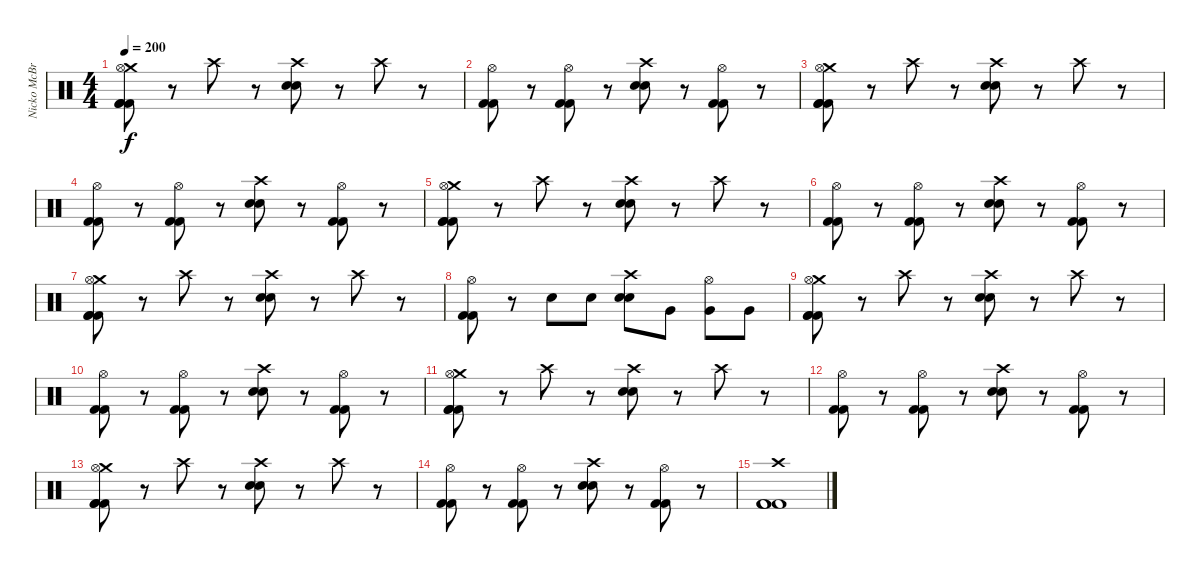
\track ("Nicko McBrain" "Nicko McBr") {instrument percussion}
\staff {score}
\articulation defaults
\ts (4 4)
\tempo 200
\clef neutral
\ks c
("Crash medium (hit)" "Hi-Hat (open)" "Kick (hit) 2" "Kick (hit) 2" "Kick (hit) 2").8{dy f} r.8 "Crash high (hit)".8 r.8 ("Crash high (hit)" "Snare (hit) 2" "Snare (hit) 2").8 r.8 "Crash high (hit)".8 r.8 |
("Hi-Hat (open)" "Kick (hit) 2" "Kick (hit) 2").8 r.8 ("Hi-Hat (open)" "Kick (hit) 2" "Kick (hit) 2").8 r.8 ("Crash high (hit)" "Snare (hit) 2" "Snare (hit) 2").8 r.8 ("Hi-Hat (open)" "Kick (hit) 2" "Kick (hit) 2").8 r.8 |
("Crash medium (hit)" "Hi-Hat (open)" "Kick (hit) 2" "Kick (hit) 2" "Kick (hit) 2").8 r.8 "Crash high (hit)".8 r.8 ("Crash high (hit)" "Snare (hit) 2" "Snare (hit) 2").8 r.8 "Crash high (hit)".8 r.8 |
("Hi-Hat (open)" "Kick (hit) 2" "Kick (hit) 2").8 r.8 ("Hi-Hat (open)" "Kick (hit) 2" "Kick (hit) 2").8 r.8 ("Crash high (hit)" "Snare (hit) 2" "Snare (hit) 2").8 r.8 ("Hi-Hat (open)" "Kick (hit) 2" "Kick (hit) 2").8 r.8 |
("Crash medium (hit)" "Hi-Hat (open)" "Kick (hit) 2" "Kick (hit) 2" "Kick (hit) 2").8 r.8 "Crash high (hit)".8 r.8 ("Crash high (hit)" "Snare (hit) 2" "Snare (hit) 2").8 r.8 "Crash high (hit)".8 r.8 |
("Hi-Hat (open)" "Kick (hit) 2" "Kick (hit) 2").8 r.8 ("Hi-Hat (open)" "Kick (hit) 2" "Kick (hit) 2").8 r.8 ("Crash high (hit)" "Snare (hit) 2" "Snare (hit) 2").8 r.8 ("Hi-Hat (open)" "Kick (hit) 2" "Kick (hit) 2").8 r.8 |
("Crash medium (hit)" "Hi-Hat (open)" "Kick (hit) 2" "Kick (hit) 2" "Kick (hit) 2").8 r.8 "Crash high (hit)".8 r.8 ("Crash high (hit)" "Snare (hit) 2" "Snare (hit) 2").8 r.8 "Crash high (hit)".8 r.8 |
("Hi-Hat (open)" "Kick (hit) 2" "Kick (hit) 2").8 r.8 "Snare (hit) 2".8 "Snare (hit) 2".8 ("Crash high (hit)" "Snare (hit) 2" "Snare (hit) 2").8 "Very Low Tom (hit)".8 ("Hi-Hat (open)" "Very Low Tom (hit)").8 "Very Low Tom (hit)".8 |
("Crash medium (hit)" "Hi-Hat (open)" "Kick (hit) 2" "Kick (hit) 2" "Kick (hit) 2").8 r.8 "Crash high (hit)".8 r.8 ("Crash high (hit)" "Snare (hit) 2" "Snare (hit) 2").8 r.8 "Crash high (hit)".8 r.8 |
("Hi-Hat (open)" "Kick (hit) 2" "Kick (hit) 2").8 r.8 ("Hi-Hat (open)" "Kick (hit) 2" "Kick (hit) 2").8 r.8 ("Crash high (hit)" "Snare (hit) 2" "Snare (hit) 2").8 r.8 ("Hi-Hat (open)" "Kick (hit) 2" "Kick (hit) 2").8 r.8 |
("Crash medium (hit)" "Hi-Hat (open)" "Kick (hit) 2" "Kick (hit) 2" "Kick (hit) 2").8 r.8 "Crash high (hit)".8 r.8 ("Crash high (hit)" "Snare (hit) 2" "Snare (hit) 2").8 r.8 "Crash high (hit)".8 r.8 |
("Hi-Hat (open)" "Kick (hit) 2" "Kick (hit) 2").8 r.8 ("Hi-Hat (open)" "Kick (hit) 2" "Kick (hit) 2").8 r.8 ("Crash high (hit)" "Snare (hit) 2" "Snare (hit) 2").8 r.8 ("Hi-Hat (open)" "Kick (hit) 2" "Kick (hit) 2").8 r.8 |
("Crash medium (hit)" "Hi-Hat (open)" "Kick (hit) 2" "Kick (hit) 2" "Kick (hit) 2").8 r.8 "Crash high (hit)".8 r.8 ("Crash high (hit)" "Snare (hit) 2" "Snare (hit) 2").8 r.8 "Crash high (hit)".8 r.8 |
("Hi-Hat (open)" "Kick (hit) 2" "Kick (hit) 2").8 r.8 ("Hi-Hat (open)" "Kick (hit) 2" "Kick (hit) 2").8 r.8 ("Crash high (hit)" "Snare (hit) 2" "Snare (hit) 2").8 r.8 ("Hi-Hat (open)" "Kick (hit) 2" "Kick (hit) 2").8 r.8 |
("Crash high (hit)" "Kick (hit) 2" "Kick (hit) 2" "Kick (hit) 2").1
